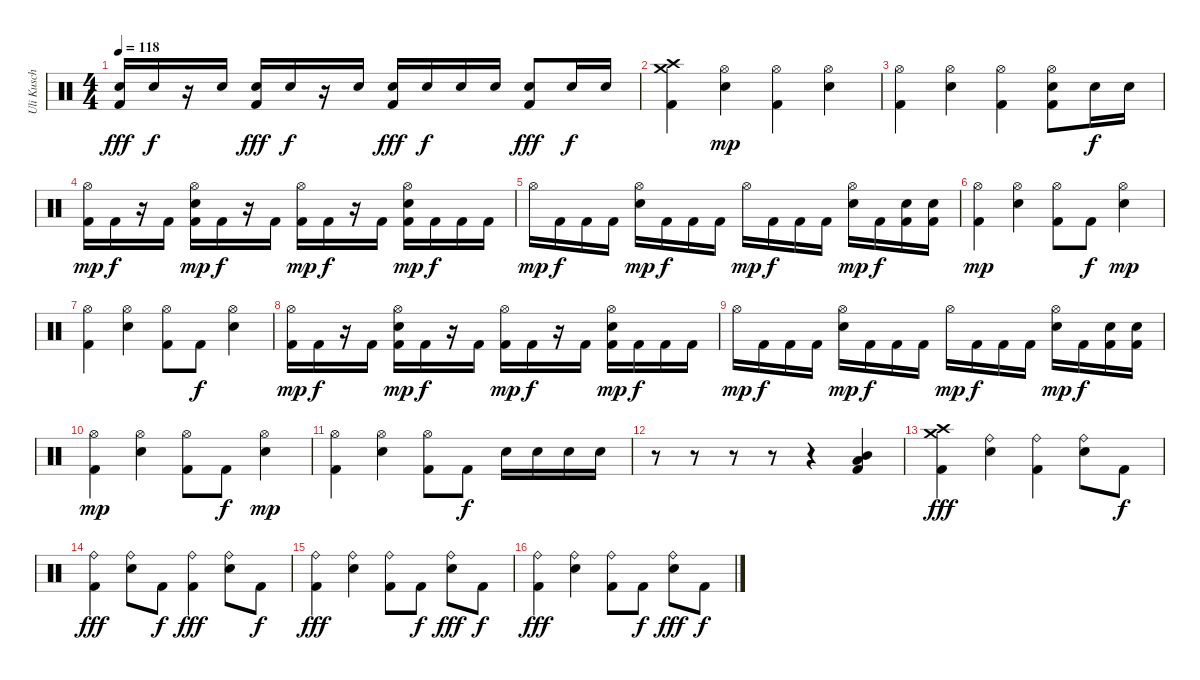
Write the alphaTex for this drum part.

\track ("Uli Kusch" "Uli Kusch") {instrument percussion}
\staff {score}
\articulation defaults
\ts (4 4)
\tempo 118
\clef neutral
\ks c
("Electric Snare (hit)" "Kick (hit) 2").16{dy fff} "Electric Snare (hit)".16{dy f} r.16 "Electric Snare (hit)".16 ("Electric Snare (hit)" "Kick (hit) 2").16{dy fff} "Electric Snare (hit)".16{dy f} r.16 "Electric Snare (hit)".16 ("Electric Snare (hit)" "Kick (hit) 2").16{dy fff} "Electric Snare (hit)".16{dy f} "Electric Snare (hit)".16 "Electric Snare (hit)".16 ("Electric Snare (hit)" "Kick (hit) 2").8{dy fff} "Electric Snare (hit)".16{dy f} "Electric Snare (hit)".16 |
("Kick (hit) 2" "Crash medium (hit)" "Crash high (hit)").4 ("Electric Snare (hit)" "Hi-Hat (open)").4{dy mp} ("Kick (hit) 2" "Hi-Hat (open)").4 ("Electric Snare (hit)" "Hi-Hat (open)").4 |
("Kick (hit) 2" "Hi-Hat (open)").4 ("Electric Snare (hit)" "Hi-Hat (open)").4 ("Kick (hit) 2" "Hi-Hat (open)").4 ("Electric Snare (hit)" "Hi-Hat (open)" "Kick (hit) 2").8 "Electric Snare (hit)".16{dy f} "Electric Snare (hit)".16 |
("Hi-Hat (open)" "Kick (hit) 2").16{dy mp} "Kick (hit) 2".16{dy f} r.16 "Kick (hit) 2".16 ("Hi-Hat (open)" "Electric Snare (hit)" "Kick (hit) 2").16{dy mp} "Kick (hit) 2".16{dy f} r.16 "Kick (hit) 2".16 ("Hi-Hat (open)" "Kick (hit) 2").16{dy mp} "Kick (hit) 2".16{dy f} r.16 "Kick (hit) 2".16 ("Hi-Hat (open)" "Electric Snare (hit)" "Kick (hit) 2").16{dy mp} "Kick (hit) 2".16{dy f} "Kick (hit) 2".16 "Kick (hit) 2".16 |
"Hi-Hat (open)".16{dy mp} "Kick (hit) 2".16{dy f} "Kick (hit) 2".16 "Kick (hit) 2".16 ("Hi-Hat (open)" "Electric Snare (hit)").16{dy mp} "Kick (hit) 2".16{dy f} "Kick (hit) 2".16 "Kick (hit) 2".16 "Hi-Hat (open)".16{dy mp} "Kick (hit) 2".16{dy f} "Kick (hit) 2".16 "Kick (hit) 2".16 ("Hi-Hat (open)" "Electric Snare (hit)").16{dy mp} "Kick (hit) 2".16{dy f} ("Electric Snare (hit)" "Kick (hit) 2").16 ("Electric Snare (hit)" "Kick (hit) 2").16 |
("Kick (hit) 2" "Hi-Hat (open)").4{dy mp} ("Electric Snare (hit)" "Hi-Hat (open)").4 ("Kick (hit) 2" "Hi-Hat (open)").8 "Kick (hit) 2".8{dy f} ("Electric Snare (hit)" "Hi-Hat (open)").4{dy mp} |
("Kick (hit) 2" "Hi-Hat (open)").4 ("Electric Snare (hit)" "Hi-Hat (open)").4 ("Kick (hit) 2" "Hi-Hat (open)").8 "Kick (hit) 2".8{dy f} ("Electric Snare (hit)" "Hi-Hat (open)").4 |
("Hi-Hat (open)" "Kick (hit) 2").16{dy mp} "Kick (hit) 2".16{dy f} r.16 "Kick (hit) 2".16 ("Hi-Hat (open)" "Electric Snare (hit)" "Kick (hit) 2").16{dy mp} "Kick (hit) 2".16{dy f} r.16 "Kick (hit) 2".16 ("Hi-Hat (open)" "Kick (hit) 2").16{dy mp} "Kick (hit) 2".16{dy f} r.16 "Kick (hit) 2".16 ("Hi-Hat (open)" "Electric Snare (hit)" "Kick (hit) 2").16{dy mp} "Kick (hit) 2".16{dy f} "Kick (hit) 2".16 "Kick (hit) 2".16 |
"Hi-Hat (open)".16{dy mp} "Kick (hit) 2".16{dy f} "Kick (hit) 2".16 "Kick (hit) 2".16 ("Hi-Hat (open)" "Electric Snare (hit)").16{dy mp} "Kick (hit) 2".16{dy f} "Kick (hit) 2".16 "Kick (hit) 2".16 "Hi-Hat (open)".16{dy mp} "Kick (hit) 2".16{dy f} "Kick (hit) 2".16 "Kick (hit) 2".16 ("Hi-Hat (open)" "Electric Snare (hit)").16{dy mp} "Kick (hit) 2".16{dy f} ("Electric Snare (hit)" "Kick (hit) 2").16 ("Electric Snare (hit)" "Kick (hit) 2").16 |
("Kick (hit) 2" "Hi-Hat (open)").4{dy mp} ("Electric Snare (hit)" "Hi-Hat (open)").4 ("Kick (hit) 2" "Hi-Hat (open)").8 "Kick (hit) 2".8{dy f} ("Electric Snare (hit)" "Hi-Hat (open)").4{dy mp} |
("Kick (hit) 2" "Hi-Hat (open)").4 ("Electric Snare (hit)" "Hi-Hat (open)").4 ("Kick (hit) 2" "Hi-Hat (open)").8 "Kick (hit) 2".8{dy f} "Electric Snare (hit)".16 "Electric Snare (hit)".16 "Electric Snare (hit)".16 "Electric Snare (hit)".16 |
r.8 r.8 r.8 r.8 r.4 ("Kick (hit) 2" "Mid Tom (hit)" "Low Tom (hit)").4 |
("Kick (hit) 2" "Crash medium (hit)" "Crash high (hit)").4{dy fff} ("Electric Snare (hit)" "Ride (bell)").4 ("Kick (hit) 2" "Ride (bell)").4 ("Electric Snare (hit)" "Ride (bell)").8 "Kick (hit) 2".8{dy f} |
("Kick (hit) 2" "Ride (bell)").4{dy fff} ("Electric Snare (hit)" "Ride (bell)").8 "Kick (hit) 2".8{dy f} ("Kick (hit) 2" "Ride (bell)").4{dy fff} ("Electric Snare (hit)" "Ride (bell)").8 "Kick (hit) 2".8{dy f} |
("Kick (hit) 2" "Ride (bell)").4{dy fff} ("Electric Snare (hit)" "Ride (bell)").4 ("Kick (hit) 2" "Ride (bell)").8 "Kick (hit) 2".8{dy f} ("Electric Snare (hit)" "Ride (bell)").8{dy fff} "Kick (hit) 2".8{dy f} |
("Kick (hit) 2" "Ride (bell)").4{dy fff} ("Electric Snare (hit)" "Ride (bell)").4 ("Kick (hit) 2" "Ride (bell)").8 "Kick (hit) 2".8{dy f} ("Electric Snare (hit)" "Ride (bell)").8{dy fff} "Kick (hit) 2".8{dy f}
